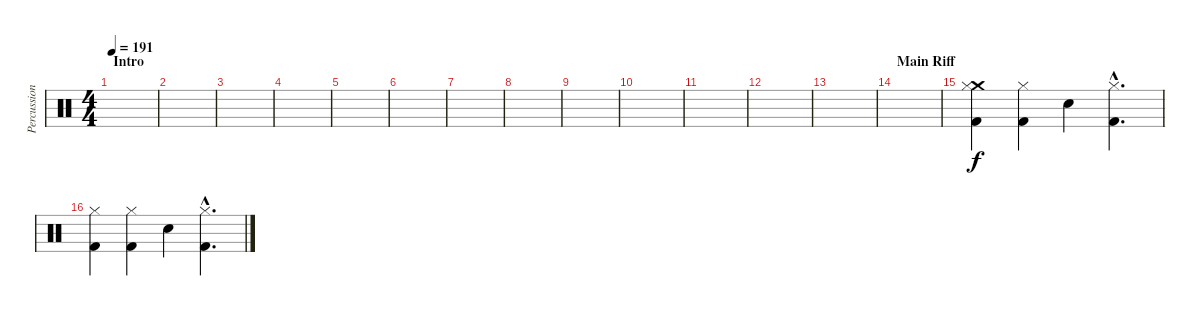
\track ("Percussion" "Percussion") {instrument percussion}
\staff {score}
\articulation defaults
\ts (4 4)
\section ("" "Intro")
\tempo 191
\clef neutral
\ks c
|
|
|
|
|
|
|
|
|
|
|
|
|
\section ("" "Main Riff")
|
("Crash medium (hit)" "Hi-Hat (closed)" "Kick (hit) 2").4 ("Hi-Hat (closed)" "Kick (hit) 2").4 "Electric Snare (hit)".4 ("Hi-Hat (closed)"{hac} "Kick (hit) 2"{hac}).4{d} |
("Hi-Hat (closed)" "Kick (hit) 2").4 ("Hi-Hat (closed)" "Kick (hit) 2").4 "Electric Snare (hit)".4 ("Hi-Hat (closed)"{hac} "Kick (hit) 2"{hac}).4{d}
